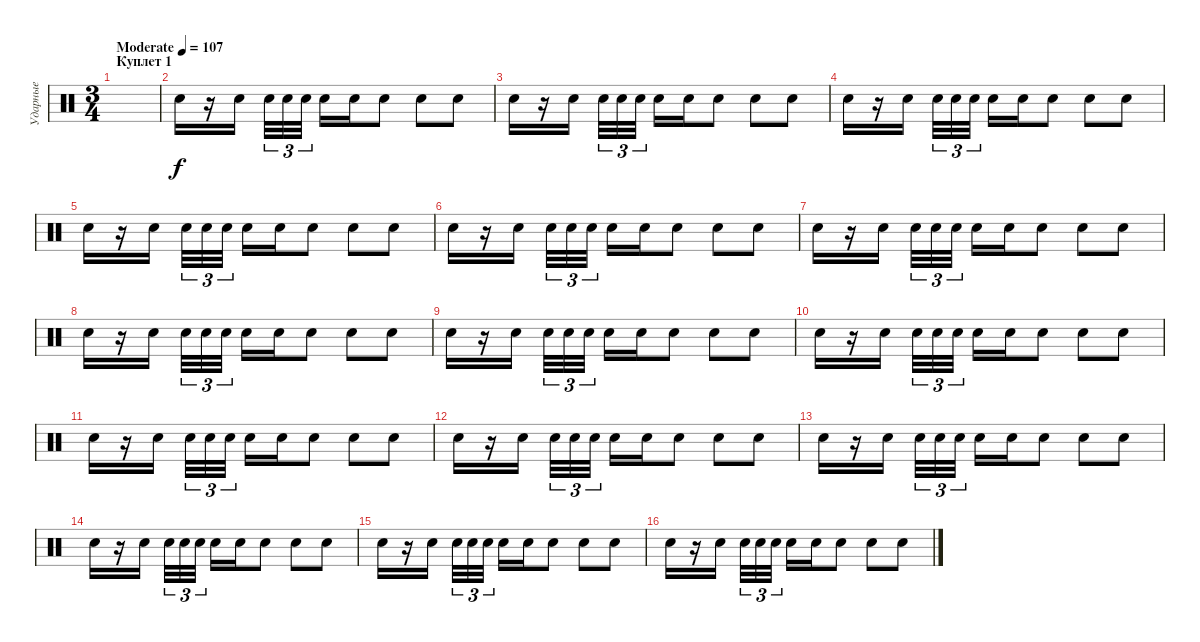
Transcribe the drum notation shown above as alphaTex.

\track ("Ударные" "Ударные") {instrument percussion}
\staff {score}
\articulation defaults
\ts (3 4)
\section ("" "Куплет 1")
\tempo (107 "Moderate")
\clef neutral
\ks c
|
"Snare (hit) 2".16{volume 3} r.16 "Snare (hit) 2".16{beam splitsecondary} "Snare (hit) 2".32{tu (3 2)} "Snare (hit) 2".32{tu (3 2)} "Snare (hit) 2".32{tu (3 2)} "Snare (hit) 2".16 "Snare (hit) 2".16 "Snare (hit) 2".8 "Snare (hit) 2".8 "Snare (hit) 2".8 |
"Snare (hit) 2".16 r.16 "Snare (hit) 2".16{beam splitsecondary} "Snare (hit) 2".32{tu (3 2)} "Snare (hit) 2".32{tu (3 2)} "Snare (hit) 2".32{tu (3 2)} "Snare (hit) 2".16 "Snare (hit) 2".16 "Snare (hit) 2".8 "Snare (hit) 2".8 "Snare (hit) 2".8 |
"Snare (hit) 2".16 r.16 "Snare (hit) 2".16{beam splitsecondary} "Snare (hit) 2".32{tu (3 2)} "Snare (hit) 2".32{tu (3 2)} "Snare (hit) 2".32{tu (3 2)} "Snare (hit) 2".16 "Snare (hit) 2".16 "Snare (hit) 2".8 "Snare (hit) 2".8 "Snare (hit) 2".8 |
"Snare (hit) 2".16 r.16 "Snare (hit) 2".16{beam splitsecondary} "Snare (hit) 2".32{tu (3 2)} "Snare (hit) 2".32{tu (3 2)} "Snare (hit) 2".32{tu (3 2)} "Snare (hit) 2".16 "Snare (hit) 2".16 "Snare (hit) 2".8 "Snare (hit) 2".8 "Snare (hit) 2".8 |
"Snare (hit) 2".16 r.16 "Snare (hit) 2".16{beam splitsecondary} "Snare (hit) 2".32{tu (3 2)} "Snare (hit) 2".32{tu (3 2)} "Snare (hit) 2".32{tu (3 2)} "Snare (hit) 2".16 "Snare (hit) 2".16 "Snare (hit) 2".8 "Snare (hit) 2".8 "Snare (hit) 2".8 |
"Snare (hit) 2".16 r.16 "Snare (hit) 2".16{beam splitsecondary} "Snare (hit) 2".32{tu (3 2)} "Snare (hit) 2".32{tu (3 2)} "Snare (hit) 2".32{tu (3 2)} "Snare (hit) 2".16 "Snare (hit) 2".16 "Snare (hit) 2".8 "Snare (hit) 2".8 "Snare (hit) 2".8 |
"Snare (hit) 2".16 r.16 "Snare (hit) 2".16{beam splitsecondary} "Snare (hit) 2".32{tu (3 2)} "Snare (hit) 2".32{tu (3 2)} "Snare (hit) 2".32{tu (3 2)} "Snare (hit) 2".16 "Snare (hit) 2".16 "Snare (hit) 2".8 "Snare (hit) 2".8 "Snare (hit) 2".8 |
"Snare (hit) 2".16 r.16 "Snare (hit) 2".16{beam splitsecondary} "Snare (hit) 2".32{tu (3 2)} "Snare (hit) 2".32{tu (3 2)} "Snare (hit) 2".32{tu (3 2)} "Snare (hit) 2".16 "Snare (hit) 2".16 "Snare (hit) 2".8 "Snare (hit) 2".8 "Snare (hit) 2".8 |
"Snare (hit) 2".16 r.16 "Snare (hit) 2".16{beam splitsecondary} "Snare (hit) 2".32{tu (3 2)} "Snare (hit) 2".32{tu (3 2)} "Snare (hit) 2".32{tu (3 2)} "Snare (hit) 2".16 "Snare (hit) 2".16 "Snare (hit) 2".8 "Snare (hit) 2".8 "Snare (hit) 2".8 |
"Snare (hit) 2".16 r.16 "Snare (hit) 2".16{beam splitsecondary} "Snare (hit) 2".32{tu (3 2)} "Snare (hit) 2".32{tu (3 2)} "Snare (hit) 2".32{tu (3 2)} "Snare (hit) 2".16 "Snare (hit) 2".16 "Snare (hit) 2".8 "Snare (hit) 2".8 "Snare (hit) 2".8 |
"Snare (hit) 2".16 r.16 "Snare (hit) 2".16{beam splitsecondary} "Snare (hit) 2".32{tu (3 2)} "Snare (hit) 2".32{tu (3 2)} "Snare (hit) 2".32{tu (3 2)} "Snare (hit) 2".16 "Snare (hit) 2".16 "Snare (hit) 2".8 "Snare (hit) 2".8 "Snare (hit) 2".8 |
"Snare (hit) 2".16 r.16 "Snare (hit) 2".16{beam splitsecondary} "Snare (hit) 2".32{tu (3 2)} "Snare (hit) 2".32{tu (3 2)} "Snare (hit) 2".32{tu (3 2)} "Snare (hit) 2".16 "Snare (hit) 2".16 "Snare (hit) 2".8 "Snare (hit) 2".8 "Snare (hit) 2".8 |
"Snare (hit) 2".16 r.16 "Snare (hit) 2".16{beam splitsecondary} "Snare (hit) 2".32{tu (3 2)} "Snare (hit) 2".32{tu (3 2)} "Snare (hit) 2".32{tu (3 2)} "Snare (hit) 2".16 "Snare (hit) 2".16 "Snare (hit) 2".8 "Snare (hit) 2".8 "Snare (hit) 2".8 |
"Snare (hit) 2".16 r.16 "Snare (hit) 2".16{beam splitsecondary} "Snare (hit) 2".32{tu (3 2)} "Snare (hit) 2".32{tu (3 2)} "Snare (hit) 2".32{tu (3 2)} "Snare (hit) 2".16 "Snare (hit) 2".16 "Snare (hit) 2".8 "Snare (hit) 2".8 "Snare (hit) 2".8 |
"Snare (hit) 2".16 r.16 "Snare (hit) 2".16{beam splitsecondary} "Snare (hit) 2".32{tu (3 2)} "Snare (hit) 2".32{tu (3 2)} "Snare (hit) 2".32{tu (3 2)} "Snare (hit) 2".16 "Snare (hit) 2".16 "Snare (hit) 2".8 "Snare (hit) 2".8 "Snare (hit) 2".8
